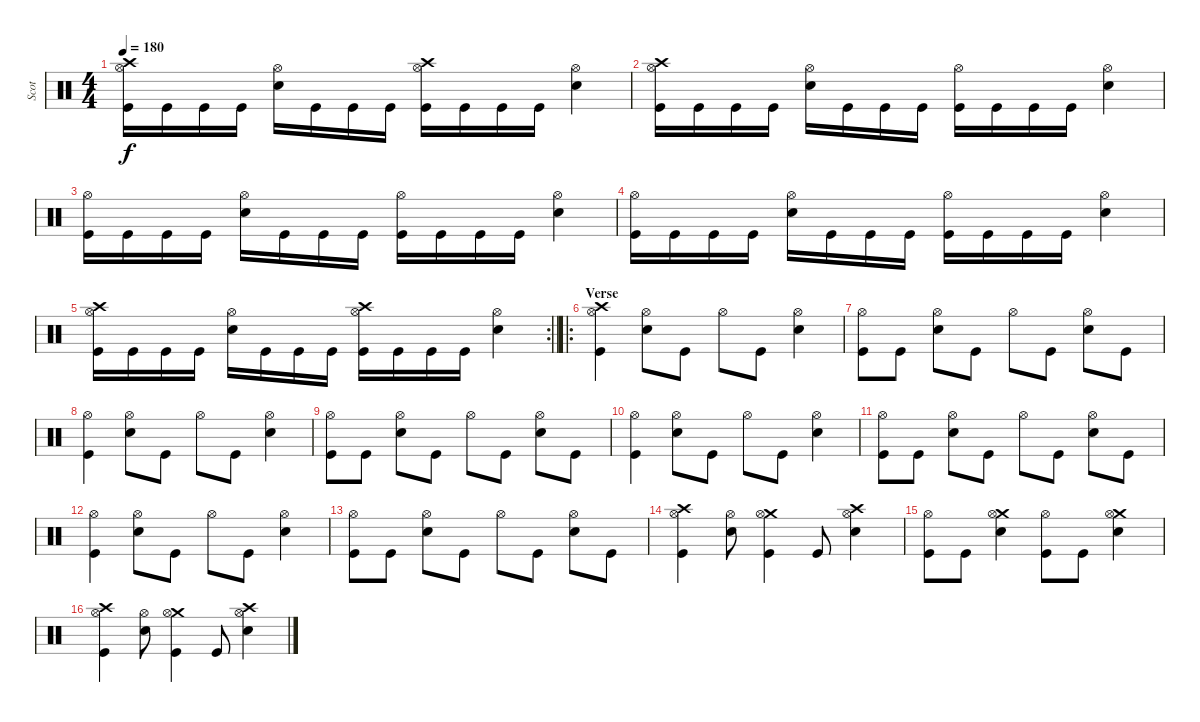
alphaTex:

\track ("Scot" "Scot") {instrument percussion}
\staff {score}
\articulation defaults
\ts (4 4)
\tempo 180
\clef neutral
\ks c
("Crash high (hit)" "Hi-Hat (open)" "Kick (hit)").16{dy f} "Kick (hit)".16 "Kick (hit)".16 "Kick (hit)".16 ("Electric Snare (hit)" "Hi-Hat (open)").16 "Kick (hit)".16 "Kick (hit)".16 "Kick (hit)".16 ("Crash high (hit)" "Hi-Hat (open)" "Kick (hit)").16 "Kick (hit)".16 "Kick (hit)".16 "Kick (hit)".16 ("Electric Snare (hit)" "Hi-Hat (open)").4 |
("Crash high (hit)" "Hi-Hat (open)" "Kick (hit)").16 "Kick (hit)".16 "Kick (hit)".16 "Kick (hit)".16 ("Electric Snare (hit)" "Hi-Hat (open)").16 "Kick (hit)".16 "Kick (hit)".16 "Kick (hit)".16 ("Hi-Hat (open)" "Kick (hit)").16 "Kick (hit)".16 "Kick (hit)".16 "Kick (hit)".16 ("Electric Snare (hit)" "Hi-Hat (open)").4 |
("Hi-Hat (open)" "Kick (hit)").16 "Kick (hit)".16 "Kick (hit)".16 "Kick (hit)".16 ("Electric Snare (hit)" "Hi-Hat (open)").16 "Kick (hit)".16 "Kick (hit)".16 "Kick (hit)".16 ("Hi-Hat (open)" "Kick (hit)").16 "Kick (hit)".16 "Kick (hit)".16 "Kick (hit)".16 ("Electric Snare (hit)" "Hi-Hat (open)").4 |
("Hi-Hat (open)" "Kick (hit)").16 "Kick (hit)".16 "Kick (hit)".16 "Kick (hit)".16 ("Electric Snare (hit)" "Hi-Hat (open)").16 "Kick (hit)".16 "Kick (hit)".16 "Kick (hit)".16 ("Hi-Hat (open)" "Kick (hit)").16 "Kick (hit)".16 "Kick (hit)".16 "Kick (hit)".16 ("Electric Snare (hit)" "Hi-Hat (open)").4 |
\rc 2
\barLineRight lightlight
("Crash high (hit)" "Hi-Hat (open)" "Kick (hit)").16 "Kick (hit)".16 "Kick (hit)".16 "Kick (hit)".16 ("Electric Snare (hit)" "Hi-Hat (open)").16 "Kick (hit)".16 "Kick (hit)".16 "Kick (hit)".16 ("Crash high (hit)" "Hi-Hat (open)" "Kick (hit)").16 "Kick (hit)".16 "Kick (hit)".16 "Kick (hit)".16 ("Electric Snare (hit)" "Hi-Hat (open)").4 |
\ro
\section ("" "Verse")
("Crash high (hit)" "Hi-Hat (open)" "Kick (hit)").4 ("Electric Snare (hit)" "Hi-Hat (open)").8 "Kick (hit)".8 "Hi-Hat (open)".8 "Kick (hit)".8 ("Electric Snare (hit)" "Hi-Hat (open)").4 |
("Hi-Hat (open)" "Kick (hit)").8 "Kick (hit)".8 ("Electric Snare (hit)" "Hi-Hat (open)").8 "Kick (hit)".8 "Hi-Hat (open)".8 "Kick (hit)".8 ("Electric Snare (hit)" "Hi-Hat (open)").8 "Kick (hit)".8 |
("Hi-Hat (open)" "Kick (hit)").4 ("Electric Snare (hit)" "Hi-Hat (open)").8 "Kick (hit)".8 "Hi-Hat (open)".8 "Kick (hit)".8 ("Electric Snare (hit)" "Hi-Hat (open)").4 |
("Hi-Hat (open)" "Kick (hit)").8 "Kick (hit)".8 ("Electric Snare (hit)" "Hi-Hat (open)").8 "Kick (hit)".8 "Hi-Hat (open)".8 "Kick (hit)".8 ("Electric Snare (hit)" "Hi-Hat (open)").8 "Kick (hit)".8 |
("Hi-Hat (open)" "Kick (hit)").4 ("Electric Snare (hit)" "Hi-Hat (open)").8 "Kick (hit)".8 "Hi-Hat (open)".8 "Kick (hit)".8 ("Electric Snare (hit)" "Hi-Hat (open)").4 |
("Hi-Hat (open)" "Kick (hit)").8 "Kick (hit)".8 ("Electric Snare (hit)" "Hi-Hat (open)").8 "Kick (hit)".8 "Hi-Hat (open)".8 "Kick (hit)".8 ("Electric Snare (hit)" "Hi-Hat (open)").8 "Kick (hit)".8 |
("Hi-Hat (open)" "Kick (hit)").4 ("Electric Snare (hit)" "Hi-Hat (open)").8 "Kick (hit)".8 "Hi-Hat (open)".8 "Kick (hit)".8 ("Electric Snare (hit)" "Hi-Hat (open)").4 |
("Hi-Hat (open)" "Kick (hit)").8 "Kick (hit)".8 ("Electric Snare (hit)" "Hi-Hat (open)").8 "Kick (hit)".8 "Hi-Hat (open)".8 "Kick (hit)".8 ("Electric Snare (hit)" "Hi-Hat (open)").8 "Kick (hit)".8 |
("Crash high (hit)" "Hi-Hat (open)" "Kick (hit)").4 ("Electric Snare (hit)" "Hi-Hat (open)").8 ("Crash medium (hit)" "Hi-Hat (open)" "Kick (hit)").4 "Kick (hit)".8 ("Crash high (hit)" "Electric Snare (hit)" "Hi-Hat (open)").4 |
("Hi-Hat (open)" "Kick (hit)").8 "Kick (hit)".8 ("Crash medium (hit)" "Electric Snare (hit)" "Hi-Hat (open)").4 ("Hi-Hat (open)" "Kick (hit)").8 "Kick (hit)".8 ("Crash medium (hit)" "Electric Snare (hit)" "Hi-Hat (open)").4 |
("Crash high (hit)" "Hi-Hat (open)" "Kick (hit)").4 ("Electric Snare (hit)" "Hi-Hat (open)").8 ("Crash medium (hit)" "Hi-Hat (open)" "Kick (hit)").4 "Kick (hit)".8 ("Crash high (hit)" "Electric Snare (hit)" "Hi-Hat (open)").4
